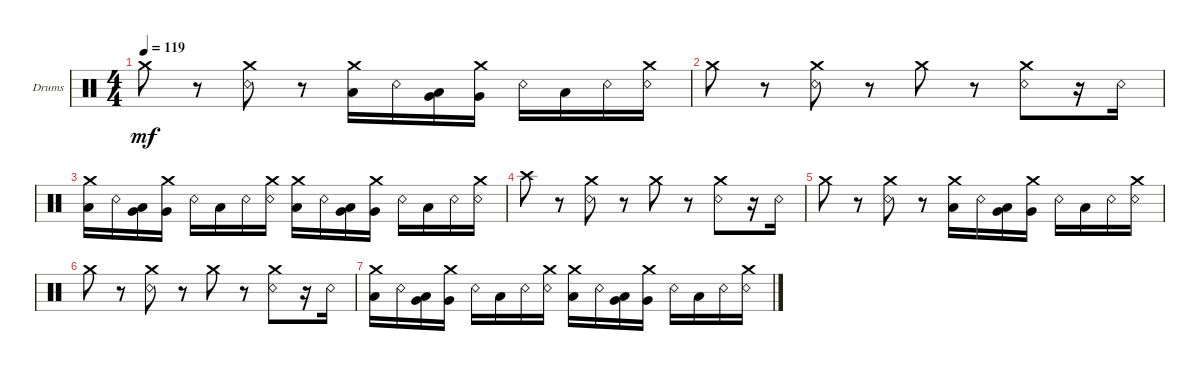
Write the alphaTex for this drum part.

\defaultSystemsLayout 4
\bracketExtendMode groupsimilarinstruments
\firstSystemTrackNameOrientation horizontal
\otherSystemsTrackNameOrientation horizontal
\track ("Drumkit" "Drums") {instrument percussion}
\staff {score}
\articulation defaults
\ts (4 4)
\tempo 119
\clef neutral
\scale
0.333333
\ks c "Crash medium (hit)".8{dy mf}
r.8 ("Snare (rim shot)" "Crash medium (hit)").8 r.8 ("Low Tom (hit)" "Crash medium (hit)").16 "Snare (rim shot)".16 ("Very Low Tom (hit)" "Low Tom (hit)").16 ("Very Low Tom (hit)" "Crash medium (hit)").16 "Snare (rim shot)".16 "Low Tom (hit)".16 "Snare (rim shot)".16 ("Snare (rim shot)" "Crash medium (hit)").16 |
\scale
0.333333 "Crash medium (hit)".8 r.8 ("Snare (rim shot)" "Crash medium (hit)").8 r.8 "Crash medium (hit)".8 r.8 ("Snare (rim shot)" "Crash medium (hit)").8 r.16 "Snare (rim shot)".16 |
\scale
0.333333 ("Low Tom (hit)" "Crash medium (hit)").16 "Snare (rim shot)".16 ("Very Low Tom (hit)" "Low Tom (hit)").16 ("Very Low Tom (hit)" "Crash medium (hit)").16 "Snare (rim shot)".16 "Low Tom (hit)".16 "Snare (rim shot)".16 ("Snare (rim shot)" "Crash medium (hit)").16 ("Low Tom (hit)" "Crash medium (hit)").16 "Snare (rim shot)".16 ("Very Low Tom (hit)" "Low Tom (hit)").16 ("Very Low Tom (hit)" "Crash medium (hit)").16 "Snare (rim shot)".16 "Low Tom (hit)".16 "Snare (rim shot)".16 ("Snare (rim shot)" "Crash medium (hit)").16 |
\scale
0.333333 "Crash high (hit)".8 r.8 ("Snare (rim shot)" "Crash medium (hit)").8 r.8 "Crash medium (hit)".8 r.8 ("Snare (rim shot)" "Crash medium (hit)").8 r.16 "Snare (rim shot)".16 |
\scale
0.333333 "Crash medium (hit)".8 r.8 ("Snare (rim shot)" "Crash medium (hit)").8 r.8 ("Low Tom (hit)" "Crash medium (hit)").16 "Snare (rim shot)".16 ("Very Low Tom (hit)" "Low Tom (hit)").16 ("Very Low Tom (hit)" "Crash medium (hit)").16 "Snare (rim shot)".16 "Low Tom (hit)".16 "Snare (rim shot)".16 ("Snare (rim shot)" "Crash medium (hit)").16 |
\scale
0.333333 "Crash medium (hit)".8 r.8 ("Snare (rim shot)" "Crash medium (hit)").8 r.8 "Crash medium (hit)".8 r.8 ("Snare (rim shot)" "Crash medium (hit)").8 r.16 "Snare (rim shot)".16 |
("Low Tom (hit)" "Crash medium (hit)").16 "Snare (rim shot)".16 ("Very Low Tom (hit)" "Low Tom (hit)").16 ("Very Low Tom (hit)" "Crash medium (hit)").16 "Snare (rim shot)".16 "Low Tom (hit)".16 "Snare (rim shot)".16 ("Snare (rim shot)" "Crash medium (hit)").16 ("Low Tom (hit)" "Crash medium (hit)").16 "Snare (rim shot)".16 ("Very Low Tom (hit)" "Low Tom (hit)").16 ("Very Low Tom (hit)" "Crash medium (hit)").16 "Snare (rim shot)".16 "Low Tom (hit)".16 "Snare (rim shot)".16 ("Snare (rim shot)" "Crash medium (hit)").16
